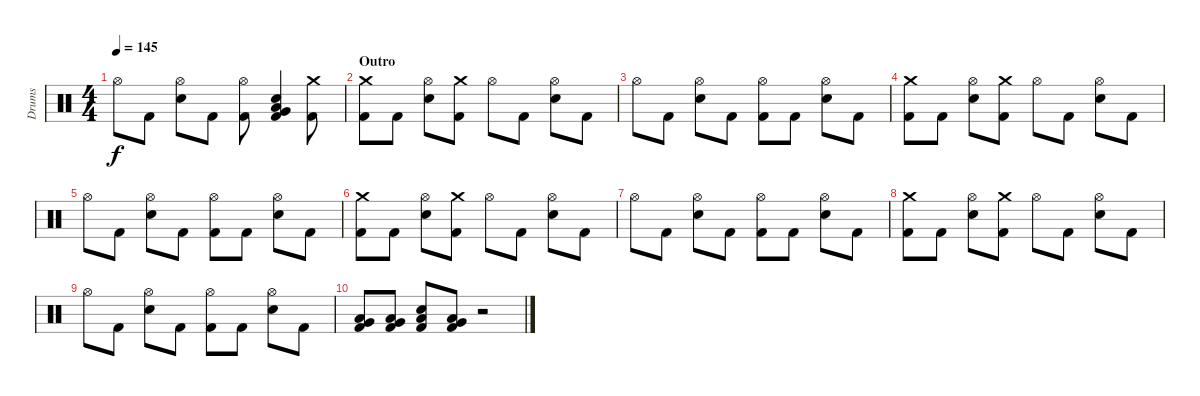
\track ("Drums" "Drums") {instrument percussion}
\staff {score}
\articulation defaults
\ts (4 4)
\tempo 145
\clef neutral
\ks c "Hi-Hat (open)".8{dy f} "Kick (hit) 2".8
("Hi-Hat (open)" "Electric Snare (hit)").8 "Kick (hit) 2".8 ("Hi-Hat (open)" "Kick (hit) 2").8 ("Low Floor Tom (hit)" "Electric Snare (hit)" "Very Low Tom (hit)" "Kick (hit) 2").4 ("Crash medium (hit)" "Kick (hit) 2").8 |
\section ("" "Outro")
("Crash medium (hit)" "Kick (hit) 2").8 "Kick (hit) 2".8 ("Hi-Hat (open)" "Electric Snare (hit)").8 ("Crash medium (hit)" "Kick (hit) 2").8 "Hi-Hat (open)".8 "Kick (hit) 2".8 ("Hi-Hat (open)" "Electric Snare (hit)").8 "Kick (hit) 2".8 |
"Hi-Hat (open)".8 "Kick (hit) 2".8 ("Hi-Hat (open)" "Electric Snare (hit)").8 "Kick (hit) 2".8 ("Hi-Hat (open)" "Kick (hit) 2").8 "Kick (hit) 2".8 ("Hi-Hat (open)" "Electric Snare (hit)").8 "Kick (hit) 2".8 |
("Crash medium (hit)" "Kick (hit) 2").8 "Kick (hit) 2".8 ("Hi-Hat (open)" "Electric Snare (hit)").8 ("Crash medium (hit)" "Kick (hit) 2").8 "Hi-Hat (open)".8 "Kick (hit) 2".8 ("Hi-Hat (open)" "Electric Snare (hit)").8 "Kick (hit) 2".8 |
"Hi-Hat (open)".8 "Kick (hit) 2".8 ("Hi-Hat (open)" "Electric Snare (hit)").8 "Kick (hit) 2".8 ("Hi-Hat (open)" "Kick (hit) 2").8 "Kick (hit) 2".8 ("Hi-Hat (open)" "Electric Snare (hit)").8 "Kick (hit) 2".8 |
("Crash medium (hit)" "Kick (hit) 2").8 "Kick (hit) 2".8 ("Hi-Hat (open)" "Electric Snare (hit)").8 ("Crash medium (hit)" "Kick (hit) 2").8 "Hi-Hat (open)".8 "Kick (hit) 2".8 ("Hi-Hat (open)" "Electric Snare (hit)").8 "Kick (hit) 2".8 |
"Hi-Hat (open)".8 "Kick (hit) 2".8 ("Hi-Hat (open)" "Electric Snare (hit)").8 "Kick (hit) 2".8 ("Hi-Hat (open)" "Kick (hit) 2").8 "Kick (hit) 2".8 ("Hi-Hat (open)" "Electric Snare (hit)").8 "Kick (hit) 2".8 |
("Crash medium (hit)" "Kick (hit) 2").8 "Kick (hit) 2".8 ("Hi-Hat (open)" "Electric Snare (hit)").8 ("Crash medium (hit)" "Kick (hit) 2").8 "Hi-Hat (open)".8 "Kick (hit) 2".8 ("Hi-Hat (open)" "Electric Snare (hit)").8 "Kick (hit) 2".8 |
"Hi-Hat (open)".8 "Kick (hit) 2".8 ("Hi-Hat (open)" "Electric Snare (hit)").8 "Kick (hit) 2".8 ("Hi-Hat (open)" "Kick (hit) 2").8 "Kick (hit) 2".8 ("Hi-Hat (open)" "Electric Snare (hit)").8 "Kick (hit) 2".8 |
("Very Low Tom (hit)" "Low Tom (hit)" "Kick (hit) 2").8 ("Very Low Tom (hit)" "Low Tom (hit)" "Kick (hit) 2").8 ("Low Tom (hit)" "Electric Snare (hit)" "Kick (hit) 2").8 ("Kick (hit) 2" "Very Low Tom (hit)" "Low Floor Tom (hit)").8 r.2
